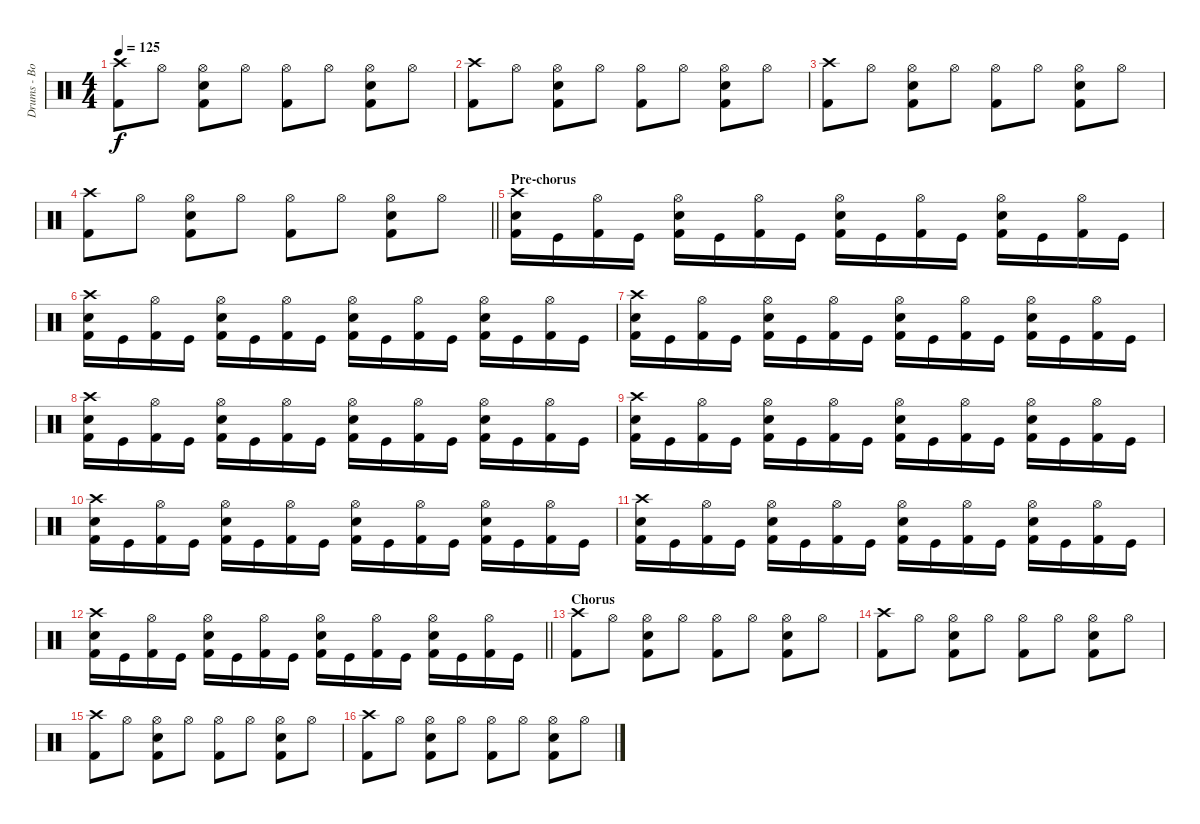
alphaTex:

\track ("Drums - Bobby Schottkowski" "Drums - Bo") {instrument percussion}
\staff {score}
\articulation defaults
\ts (4 4)
\tempo 125
\clef neutral
\ks c
("Kick (hit) 2" "Crash high (hit)").8{dy f} "Hi-Hat (open)".8 ("Kick (hit) 2" "Snare (hit) 2" "Hi-Hat (open)").8 "Hi-Hat (open)".8 ("Kick (hit) 2" "Hi-Hat (open)").8 "Hi-Hat (open)".8 ("Kick (hit) 2" "Snare (hit) 2" "Hi-Hat (open)").8 "Hi-Hat (open)".8 |
("Kick (hit) 2" "Crash high (hit)").8 "Hi-Hat (open)".8 ("Kick (hit) 2" "Snare (hit) 2" "Hi-Hat (open)").8 "Hi-Hat (open)".8 ("Kick (hit) 2" "Hi-Hat (open)").8 "Hi-Hat (open)".8 ("Kick (hit) 2" "Snare (hit) 2" "Hi-Hat (open)").8 "Hi-Hat (open)".8 |
("Kick (hit) 2" "Crash high (hit)").8 "Hi-Hat (open)".8 ("Kick (hit) 2" "Snare (hit) 2" "Hi-Hat (open)").8 "Hi-Hat (open)".8 ("Kick (hit) 2" "Hi-Hat (open)").8 "Hi-Hat (open)".8 ("Kick (hit) 2" "Snare (hit) 2" "Hi-Hat (open)").8 "Hi-Hat (open)".8 |
\barLineRight lightlight
("Kick (hit) 2" "Crash high (hit)").8 "Hi-Hat (open)".8 ("Kick (hit) 2" "Snare (hit) 2" "Hi-Hat (open)").8 "Hi-Hat (open)".8 ("Kick (hit) 2" "Hi-Hat (open)").8 "Hi-Hat (open)".8 ("Kick (hit) 2" "Snare (hit) 2" "Hi-Hat (open)").8 "Hi-Hat (open)".8 |
\section ("" "Pre-chorus")
("Kick (hit) 2" "Snare (hit) 2" "Crash high (hit)").16 "Kick (hit)".16 ("Kick (hit) 2" "Hi-Hat (open)").16 "Kick (hit)".16 ("Kick (hit) 2" "Snare (hit) 2" "Hi-Hat (open)").16 "Kick (hit)".16 ("Kick (hit) 2" "Hi-Hat (open)").16 "Kick (hit)".16 ("Kick (hit) 2" "Snare (hit) 2" "Hi-Hat (open)").16 "Kick (hit)".16 ("Kick (hit) 2" "Hi-Hat (open)").16 "Kick (hit)".16 ("Kick (hit) 2" "Snare (hit) 2" "Hi-Hat (open)").16 "Kick (hit)".16 ("Kick (hit) 2" "Hi-Hat (open)").16 "Kick (hit)".16 |
("Kick (hit) 2" "Snare (hit) 2" "Crash high (hit)").16 "Kick (hit)".16 ("Kick (hit) 2" "Hi-Hat (open)").16 "Kick (hit)".16 ("Kick (hit) 2" "Snare (hit) 2" "Hi-Hat (open)").16 "Kick (hit)".16 ("Kick (hit) 2" "Hi-Hat (open)").16 "Kick (hit)".16 ("Kick (hit) 2" "Snare (hit) 2" "Hi-Hat (open)").16 "Kick (hit)".16 ("Kick (hit) 2" "Hi-Hat (open)").16 "Kick (hit)".16 ("Kick (hit) 2" "Snare (hit) 2" "Hi-Hat (open)").16 "Kick (hit)".16 ("Kick (hit) 2" "Hi-Hat (open)").16 "Kick (hit)".16 |
("Kick (hit) 2" "Snare (hit) 2" "Crash high (hit)").16 "Kick (hit)".16 ("Kick (hit) 2" "Hi-Hat (open)").16 "Kick (hit)".16 ("Kick (hit) 2" "Snare (hit) 2" "Hi-Hat (open)").16 "Kick (hit)".16 ("Kick (hit) 2" "Hi-Hat (open)").16 "Kick (hit)".16 ("Kick (hit) 2" "Snare (hit) 2" "Hi-Hat (open)").16 "Kick (hit)".16 ("Kick (hit) 2" "Hi-Hat (open)").16 "Kick (hit)".16 ("Kick (hit) 2" "Snare (hit) 2" "Hi-Hat (open)").16 "Kick (hit)".16 ("Kick (hit) 2" "Hi-Hat (open)").16 "Kick (hit)".16 |
("Kick (hit) 2" "Snare (hit) 2" "Crash high (hit)").16 "Kick (hit)".16 ("Kick (hit) 2" "Hi-Hat (open)").16 "Kick (hit)".16 ("Kick (hit) 2" "Snare (hit) 2" "Hi-Hat (open)").16 "Kick (hit)".16 ("Kick (hit) 2" "Hi-Hat (open)").16 "Kick (hit)".16 ("Kick (hit) 2" "Snare (hit) 2" "Hi-Hat (open)").16 "Kick (hit)".16 ("Kick (hit) 2" "Hi-Hat (open)").16 "Kick (hit)".16 ("Kick (hit) 2" "Snare (hit) 2" "Hi-Hat (open)").16 "Kick (hit)".16 ("Kick (hit) 2" "Hi-Hat (open)").16 "Kick (hit)".16 |
("Kick (hit) 2" "Snare (hit) 2" "Crash high (hit)").16 "Kick (hit)".16 ("Kick (hit) 2" "Hi-Hat (open)").16 "Kick (hit)".16 ("Kick (hit) 2" "Snare (hit) 2" "Hi-Hat (open)").16 "Kick (hit)".16 ("Kick (hit) 2" "Hi-Hat (open)").16 "Kick (hit)".16 ("Kick (hit) 2" "Snare (hit) 2" "Hi-Hat (open)").16 "Kick (hit)".16 ("Kick (hit) 2" "Hi-Hat (open)").16 "Kick (hit)".16 ("Kick (hit) 2" "Snare (hit) 2" "Hi-Hat (open)").16 "Kick (hit)".16 ("Kick (hit) 2" "Hi-Hat (open)").16 "Kick (hit)".16 |
("Kick (hit) 2" "Snare (hit) 2" "Crash high (hit)").16 "Kick (hit)".16 ("Kick (hit) 2" "Hi-Hat (open)").16 "Kick (hit)".16 ("Kick (hit) 2" "Snare (hit) 2" "Hi-Hat (open)").16 "Kick (hit)".16 ("Kick (hit) 2" "Hi-Hat (open)").16 "Kick (hit)".16 ("Kick (hit) 2" "Snare (hit) 2" "Hi-Hat (open)").16 "Kick (hit)".16 ("Kick (hit) 2" "Hi-Hat (open)").16 "Kick (hit)".16 ("Kick (hit) 2" "Snare (hit) 2" "Hi-Hat (open)").16 "Kick (hit)".16 ("Kick (hit) 2" "Hi-Hat (open)").16 "Kick (hit)".16 |
("Kick (hit) 2" "Snare (hit) 2" "Crash high (hit)").16 "Kick (hit)".16 ("Kick (hit) 2" "Hi-Hat (open)").16 "Kick (hit)".16 ("Kick (hit) 2" "Snare (hit) 2" "Hi-Hat (open)").16 "Kick (hit)".16 ("Kick (hit) 2" "Hi-Hat (open)").16 "Kick (hit)".16 ("Kick (hit) 2" "Snare (hit) 2" "Hi-Hat (open)").16 "Kick (hit)".16 ("Kick (hit) 2" "Hi-Hat (open)").16 "Kick (hit)".16 ("Kick (hit) 2" "Snare (hit) 2" "Hi-Hat (open)").16 "Kick (hit)".16 ("Kick (hit) 2" "Hi-Hat (open)").16 "Kick (hit)".16 |
\barLineRight lightlight
("Kick (hit) 2" "Snare (hit) 2" "Crash high (hit)").16 "Kick (hit)".16 ("Kick (hit) 2" "Hi-Hat (open)").16 "Kick (hit)".16 ("Kick (hit) 2" "Snare (hit) 2" "Hi-Hat (open)").16 "Kick (hit)".16 ("Kick (hit) 2" "Hi-Hat (open)").16 "Kick (hit)".16 ("Kick (hit) 2" "Snare (hit) 2" "Hi-Hat (open)").16 "Kick (hit)".16 ("Kick (hit) 2" "Hi-Hat (open)").16 "Kick (hit)".16 ("Kick (hit) 2" "Snare (hit) 2" "Hi-Hat (open)").16 "Kick (hit)".16 ("Kick (hit) 2" "Hi-Hat (open)").16 "Kick (hit)".16 |
\section ("" "Chorus")
("Kick (hit) 2" "Crash high (hit)").8 "Hi-Hat (open)".8 ("Kick (hit) 2" "Snare (hit) 2" "Hi-Hat (open)").8 "Hi-Hat (open)".8 ("Kick (hit) 2" "Hi-Hat (open)").8 "Hi-Hat (open)".8 ("Kick (hit) 2" "Snare (hit) 2" "Hi-Hat (open)").8 "Hi-Hat (open)".8 |
("Kick (hit) 2" "Crash high (hit)").8 "Hi-Hat (open)".8 ("Kick (hit) 2" "Snare (hit) 2" "Hi-Hat (open)").8 "Hi-Hat (open)".8 ("Kick (hit) 2" "Hi-Hat (open)").8 "Hi-Hat (open)".8 ("Kick (hit) 2" "Snare (hit) 2" "Hi-Hat (open)").8 "Hi-Hat (open)".8 |
("Kick (hit) 2" "Crash high (hit)").8 "Hi-Hat (open)".8 ("Kick (hit) 2" "Snare (hit) 2" "Hi-Hat (open)").8 "Hi-Hat (open)".8 ("Kick (hit) 2" "Hi-Hat (open)").8 "Hi-Hat (open)".8 ("Kick (hit) 2" "Snare (hit) 2" "Hi-Hat (open)").8 "Hi-Hat (open)".8 |
("Kick (hit) 2" "Crash high (hit)").8 "Hi-Hat (open)".8 ("Kick (hit) 2" "Snare (hit) 2" "Hi-Hat (open)").8 "Hi-Hat (open)".8 ("Kick (hit) 2" "Hi-Hat (open)").8 "Hi-Hat (open)".8 ("Kick (hit) 2" "Snare (hit) 2" "Hi-Hat (open)").8 "Hi-Hat (open)".8
